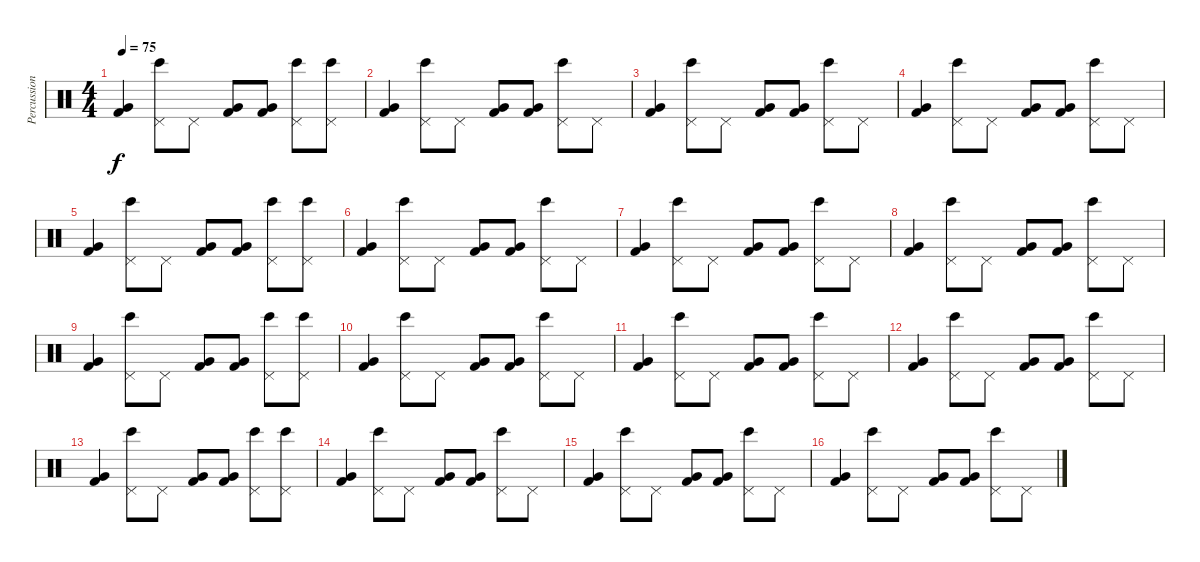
\track ("Percussion" "Percussion") {instrument percussion}
\staff {score}
\articulation defaults
\ts (4 4)
\tempo 75
\clef neutral
\ks c
("Very Low Tom (hit)" "Kick (hit) 2").4{dy f} ("Pedal Hi-Hat (hit)" "Bongo High (hit)").8 "Pedal Hi-Hat (hit)".8 ("Very Low Tom (hit)" "Kick (hit) 2").8 ("Very Low Tom (hit)" "Kick (hit) 2").8 ("Pedal Hi-Hat (hit)" "Bongo High (hit)").8 ("Pedal Hi-Hat (hit)" "Bongo High (hit)").8 |
("Very Low Tom (hit)" "Kick (hit) 2").4 ("Pedal Hi-Hat (hit)" "Bongo High (hit)").8 "Pedal Hi-Hat (hit)".8 ("Very Low Tom (hit)" "Kick (hit) 2").8 ("Very Low Tom (hit)" "Kick (hit) 2").8 ("Pedal Hi-Hat (hit)" "Bongo High (hit)").8 "Pedal Hi-Hat (hit)".8 |
("Very Low Tom (hit)" "Kick (hit) 2").4 ("Pedal Hi-Hat (hit)" "Bongo High (hit)").8 "Pedal Hi-Hat (hit)".8 ("Very Low Tom (hit)" "Kick (hit) 2").8 ("Very Low Tom (hit)" "Kick (hit) 2").8 ("Pedal Hi-Hat (hit)" "Bongo High (hit)").8 "Pedal Hi-Hat (hit)".8 |
("Very Low Tom (hit)" "Kick (hit) 2").4 ("Pedal Hi-Hat (hit)" "Bongo High (hit)").8 "Pedal Hi-Hat (hit)".8 ("Very Low Tom (hit)" "Kick (hit) 2").8 ("Very Low Tom (hit)" "Kick (hit) 2").8 ("Pedal Hi-Hat (hit)" "Bongo High (hit)").8 "Pedal Hi-Hat (hit)".8 |
("Very Low Tom (hit)" "Kick (hit) 2").4 ("Pedal Hi-Hat (hit)" "Bongo High (hit)").8 "Pedal Hi-Hat (hit)".8 ("Very Low Tom (hit)" "Kick (hit) 2").8 ("Very Low Tom (hit)" "Kick (hit) 2").8 ("Pedal Hi-Hat (hit)" "Bongo High (hit)").8 ("Pedal Hi-Hat (hit)" "Bongo High (hit)").8 |
("Very Low Tom (hit)" "Kick (hit) 2").4 ("Pedal Hi-Hat (hit)" "Bongo High (hit)").8 "Pedal Hi-Hat (hit)".8 ("Very Low Tom (hit)" "Kick (hit) 2").8 ("Very Low Tom (hit)" "Kick (hit) 2").8 ("Pedal Hi-Hat (hit)" "Bongo High (hit)").8 "Pedal Hi-Hat (hit)".8 |
("Very Low Tom (hit)" "Kick (hit) 2").4 ("Pedal Hi-Hat (hit)" "Bongo High (hit)").8 "Pedal Hi-Hat (hit)".8 ("Very Low Tom (hit)" "Kick (hit) 2").8 ("Very Low Tom (hit)" "Kick (hit) 2").8 ("Pedal Hi-Hat (hit)" "Bongo High (hit)").8 "Pedal Hi-Hat (hit)".8 |
("Very Low Tom (hit)" "Kick (hit) 2").4 ("Pedal Hi-Hat (hit)" "Bongo High (hit)").8 "Pedal Hi-Hat (hit)".8 ("Very Low Tom (hit)" "Kick (hit) 2").8 ("Very Low Tom (hit)" "Kick (hit) 2").8 ("Pedal Hi-Hat (hit)" "Bongo High (hit)").8 "Pedal Hi-Hat (hit)".8 |
("Very Low Tom (hit)" "Kick (hit) 2").4 ("Pedal Hi-Hat (hit)" "Bongo High (hit)").8 "Pedal Hi-Hat (hit)".8 ("Very Low Tom (hit)" "Kick (hit) 2").8 ("Very Low Tom (hit)" "Kick (hit) 2").8 ("Pedal Hi-Hat (hit)" "Bongo High (hit)").8 ("Pedal Hi-Hat (hit)" "Bongo High (hit)").8 |
("Very Low Tom (hit)" "Kick (hit) 2").4 ("Pedal Hi-Hat (hit)" "Bongo High (hit)").8 "Pedal Hi-Hat (hit)".8 ("Very Low Tom (hit)" "Kick (hit) 2").8 ("Very Low Tom (hit)" "Kick (hit) 2").8 ("Pedal Hi-Hat (hit)" "Bongo High (hit)").8 "Pedal Hi-Hat (hit)".8 |
("Very Low Tom (hit)" "Kick (hit) 2").4 ("Pedal Hi-Hat (hit)" "Bongo High (hit)").8 "Pedal Hi-Hat (hit)".8 ("Very Low Tom (hit)" "Kick (hit) 2").8 ("Very Low Tom (hit)" "Kick (hit) 2").8 ("Pedal Hi-Hat (hit)" "Bongo High (hit)").8 "Pedal Hi-Hat (hit)".8 |
("Very Low Tom (hit)" "Kick (hit) 2").4 ("Pedal Hi-Hat (hit)" "Bongo High (hit)").8 "Pedal Hi-Hat (hit)".8 ("Very Low Tom (hit)" "Kick (hit) 2").8 ("Very Low Tom (hit)" "Kick (hit) 2").8 ("Pedal Hi-Hat (hit)" "Bongo High (hit)").8 "Pedal Hi-Hat (hit)".8 |
("Very Low Tom (hit)" "Kick (hit) 2").4 ("Pedal Hi-Hat (hit)" "Bongo High (hit)").8 "Pedal Hi-Hat (hit)".8 ("Very Low Tom (hit)" "Kick (hit) 2").8 ("Very Low Tom (hit)" "Kick (hit) 2").8 ("Pedal Hi-Hat (hit)" "Bongo High (hit)").8 ("Pedal Hi-Hat (hit)" "Bongo High (hit)").8 |
("Very Low Tom (hit)" "Kick (hit) 2").4 ("Pedal Hi-Hat (hit)" "Bongo High (hit)").8 "Pedal Hi-Hat (hit)".8 ("Very Low Tom (hit)" "Kick (hit) 2").8 ("Very Low Tom (hit)" "Kick (hit) 2").8 ("Pedal Hi-Hat (hit)" "Bongo High (hit)").8 "Pedal Hi-Hat (hit)".8 |
("Very Low Tom (hit)" "Kick (hit) 2").4 ("Pedal Hi-Hat (hit)" "Bongo High (hit)").8 "Pedal Hi-Hat (hit)".8 ("Very Low Tom (hit)" "Kick (hit) 2").8 ("Very Low Tom (hit)" "Kick (hit) 2").8 ("Pedal Hi-Hat (hit)" "Bongo High (hit)").8 "Pedal Hi-Hat (hit)".8 |
("Very Low Tom (hit)" "Kick (hit) 2").4 ("Pedal Hi-Hat (hit)" "Bongo High (hit)").8 "Pedal Hi-Hat (hit)".8 ("Very Low Tom (hit)" "Kick (hit) 2").8 ("Very Low Tom (hit)" "Kick (hit) 2").8 ("Pedal Hi-Hat (hit)" "Bongo High (hit)").8 "Pedal Hi-Hat (hit)".8
